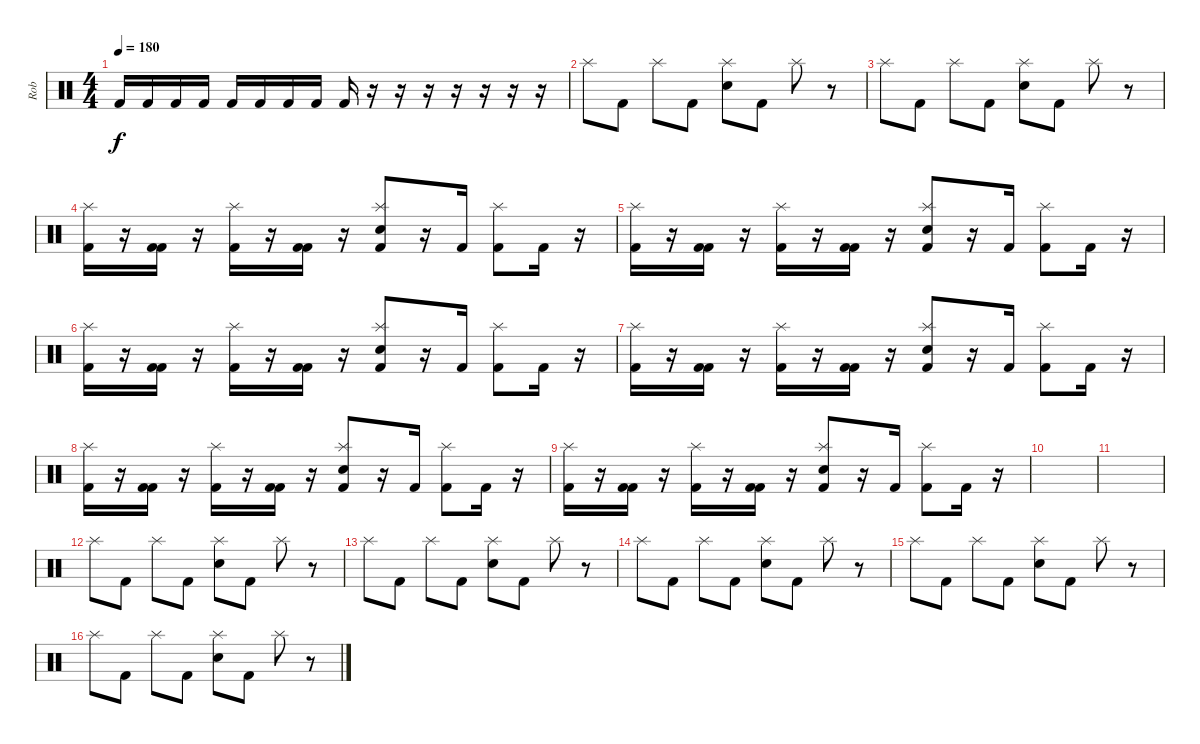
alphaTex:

\track ("Rob" "Rob") {instrument percussion}
\staff {score}
\articulation defaults
\ts (4 4)
\tempo 180
\clef neutral
\ks c "Kick (hit) 2".16{dy f} "Kick (hit) 2".16 "Kick (hit) 2".16 "Kick (hit) 2".16 "Kick (hit) 2".16 "Kick (hit) 2".16 "Kick (hit) 2".16 "Kick (hit) 2".16 "Kick (hit) 2".16
r.16 r.16 r.16 r.16 r.16 r.16 r.16 |
"Splash (hit)".8 "Kick (hit) 2".8 "Splash (hit)".8 "Kick (hit) 2".8 ("Splash (hit)" "Electric Snare (hit)").8 "Kick (hit) 2".8 "Splash (hit)".8 r.8 |
"Splash (hit)".8 "Kick (hit) 2".8 "Splash (hit)".8 "Kick (hit) 2".8 ("Splash (hit)" "Electric Snare (hit)").8 "Kick (hit) 2".8 "Splash (hit)".8 r.8 |
("Splash (hit)" "Kick (hit) 2").16 r.16 ("Kick (hit) 2" "Kick (hit) 2").16 r.16 ("Splash (hit)" "Kick (hit) 2").16 r.16 ("Kick (hit) 2" "Kick (hit) 2").16 r.16 ("Splash (hit)" "Electric Snare (hit)" "Kick (hit) 2").8 r.16 "Kick (hit) 2".16 ("Splash (hit)" "Kick (hit) 2").8 "Kick (hit) 2".16 r.16 |
("Splash (hit)" "Kick (hit) 2").16 r.16 ("Kick (hit) 2" "Kick (hit) 2").16 r.16 ("Splash (hit)" "Kick (hit) 2").16 r.16 ("Kick (hit) 2" "Kick (hit) 2").16 r.16 ("Splash (hit)" "Electric Snare (hit)" "Kick (hit) 2").8 r.16 "Kick (hit) 2".16 ("Splash (hit)" "Kick (hit) 2").8 "Kick (hit) 2".16 r.16 |
("Splash (hit)" "Kick (hit) 2").16 r.16 ("Kick (hit) 2" "Kick (hit) 2").16 r.16 ("Splash (hit)" "Kick (hit) 2").16 r.16 ("Kick (hit) 2" "Kick (hit) 2").16 r.16 ("Splash (hit)" "Electric Snare (hit)" "Kick (hit) 2").8 r.16 "Kick (hit) 2".16 ("Splash (hit)" "Kick (hit) 2").8 "Kick (hit) 2".16 r.16 |
("Splash (hit)" "Kick (hit) 2").16 r.16 ("Kick (hit) 2" "Kick (hit) 2").16 r.16 ("Splash (hit)" "Kick (hit) 2").16 r.16 ("Kick (hit) 2" "Kick (hit) 2").16 r.16 ("Splash (hit)" "Electric Snare (hit)" "Kick (hit) 2").8 r.16 "Kick (hit) 2".16 ("Splash (hit)" "Kick (hit) 2").8 "Kick (hit) 2".16 r.16 |
("Splash (hit)" "Kick (hit) 2").16 r.16 ("Kick (hit) 2" "Kick (hit) 2").16 r.16 ("Splash (hit)" "Kick (hit) 2").16 r.16 ("Kick (hit) 2" "Kick (hit) 2").16 r.16 ("Splash (hit)" "Electric Snare (hit)" "Kick (hit) 2").8 r.16 "Kick (hit) 2".16 ("Splash (hit)" "Kick (hit) 2").8 "Kick (hit) 2".16 r.16 |
("Splash (hit)" "Kick (hit) 2").16 r.16 ("Kick (hit) 2" "Kick (hit) 2").16 r.16 ("Splash (hit)" "Kick (hit) 2").16 r.16 ("Kick (hit) 2" "Kick (hit) 2").16 r.16 ("Splash (hit)" "Electric Snare (hit)" "Kick (hit) 2").8 r.16 "Kick (hit) 2".16 ("Splash (hit)" "Kick (hit) 2").8 "Kick (hit) 2".16 r.16 |
|
|
"Splash (hit)".8 "Kick (hit) 2".8 "Splash (hit)".8 "Kick (hit) 2".8 ("Splash (hit)" "Electric Snare (hit)").8 "Kick (hit) 2".8 "Splash (hit)".8 r.8 |
"Splash (hit)".8 "Kick (hit) 2".8 "Splash (hit)".8 "Kick (hit) 2".8 ("Splash (hit)" "Electric Snare (hit)").8 "Kick (hit) 2".8 "Splash (hit)".8 r.8 |
"Splash (hit)".8 "Kick (hit) 2".8 "Splash (hit)".8 "Kick (hit) 2".8 ("Splash (hit)" "Electric Snare (hit)").8 "Kick (hit) 2".8 "Splash (hit)".8 r.8 |
"Splash (hit)".8 "Kick (hit) 2".8 "Splash (hit)".8 "Kick (hit) 2".8 ("Splash (hit)" "Electric Snare (hit)").8 "Kick (hit) 2".8 "Splash (hit)".8 r.8 |
"Splash (hit)".8 "Kick (hit) 2".8 "Splash (hit)".8 "Kick (hit) 2".8 ("Splash (hit)" "Electric Snare (hit)").8 "Kick (hit) 2".8 "Splash (hit)".8 r.8
